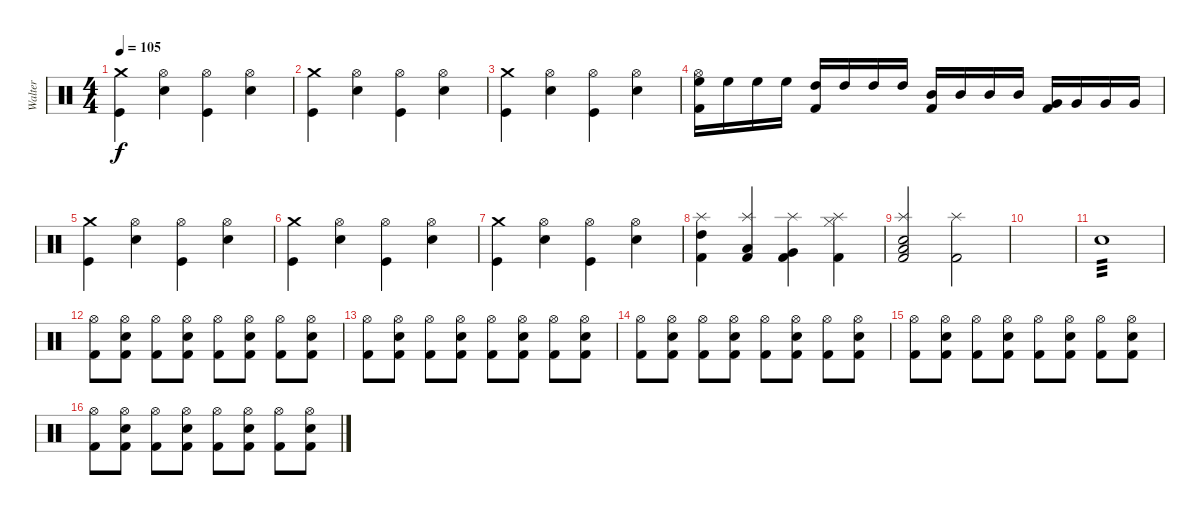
\track ("Walter" "Walter") {instrument percussion}
\staff {score}
\articulation defaults
\ts (4 4)
\tempo 105
\clef neutral
\ks c
("Kick (hit)" "Crash medium (hit)").4{dy f} ("Snare (hit) 2" "Hi-Hat (open)").4 ("Kick (hit)" "Hi-Hat (open)").4 ("Snare (hit) 2" "Hi-Hat (open)").4 |
("Kick (hit)" "Crash medium (hit)").4 ("Snare (hit) 2" "Hi-Hat (open)").4 ("Kick (hit)" "Hi-Hat (open)").4 ("Snare (hit) 2" "Hi-Hat (open)").4 |
("Kick (hit)" "Crash medium (hit)").4 ("Snare (hit) 2" "Hi-Hat (open)").4 ("Kick (hit)" "Hi-Hat (open)").4 ("Snare (hit) 2" "Hi-Hat (open)").4 |
("Hi-Hat (open)" "High Floor Tom (hit)" "Kick (hit) 2").16 "High Floor Tom (hit)".16 "High Floor Tom (hit)".16 "High Floor Tom (hit)".16 ("High Tom (hit)" "Kick (hit) 2").16 "High Tom (hit)".16 "High Tom (hit)".16 "High Tom (hit)".16 ("Mid Tom (hit)" "Kick (hit) 2").16 "Mid Tom (hit)".16 "Mid Tom (hit)".16 "Mid Tom (hit)".16 ("Very Low Tom (hit)" "Kick (hit) 2").16 "Very Low Tom (hit)".16 "Very Low Tom (hit)".16 "Very Low Tom (hit)".16 |
("Kick (hit)" "Crash medium (hit)").4 ("Snare (hit) 2" "Hi-Hat (open)").4 ("Kick (hit)" "Hi-Hat (open)").4 ("Snare (hit) 2" "Hi-Hat (open)").4 |
("Kick (hit)" "Crash medium (hit)").4 ("Snare (hit) 2" "Hi-Hat (open)").4 ("Kick (hit)" "Hi-Hat (open)").4 ("Snare (hit) 2" "Hi-Hat (open)").4 |
("Kick (hit)" "Crash medium (hit)").4 ("Snare (hit) 2" "Hi-Hat (open)").4 ("Kick (hit)" "Hi-Hat (open)").4 ("Snare (hit) 2" "Hi-Hat (open)").4 |
("Splash (hit)" "High Tom (hit)" "Kick (hit) 2").4 ("Splash (hit)" "Low Tom (hit)" "Kick (hit) 2").4 ("Splash (hit)" "Very Low Tom (hit)" "Kick (hit) 2").4 ("Splash (hit)" "Hi-Hat (closed)" "Kick (hit) 2").4 |
("Splash (hit)" "Low Floor Tom (hit)" "Electric Snare (hit)" "Kick (hit) 2").2 ("Splash (hit)" "Kick (hit) 2").2 |
|
"Electric Snare (hit)".1{tp 3} |
("Hi-Hat (open)" "Kick (hit) 2").8 ("Hi-Hat (open)" "Electric Snare (hit)" "Kick (hit) 2").8 ("Hi-Hat (open)" "Kick (hit) 2").8 ("Hi-Hat (open)" "Electric Snare (hit)" "Kick (hit) 2").8 ("Hi-Hat (open)" "Kick (hit) 2").8 ("Hi-Hat (open)" "Electric Snare (hit)" "Kick (hit) 2").8 ("Hi-Hat (open)" "Kick (hit) 2").8 ("Hi-Hat (open)" "Electric Snare (hit)" "Kick (hit) 2").8 |
("Hi-Hat (open)" "Kick (hit) 2").8 ("Hi-Hat (open)" "Electric Snare (hit)" "Kick (hit) 2").8 ("Hi-Hat (open)" "Kick (hit) 2").8 ("Hi-Hat (open)" "Electric Snare (hit)" "Kick (hit) 2").8 ("Hi-Hat (open)" "Kick (hit) 2").8 ("Hi-Hat (open)" "Electric Snare (hit)" "Kick (hit) 2").8 ("Hi-Hat (open)" "Kick (hit) 2").8 ("Hi-Hat (open)" "Electric Snare (hit)" "Kick (hit) 2").8 |
("Hi-Hat (open)" "Kick (hit) 2").8 ("Hi-Hat (open)" "Electric Snare (hit)" "Kick (hit) 2").8 ("Hi-Hat (open)" "Kick (hit) 2").8 ("Hi-Hat (open)" "Electric Snare (hit)" "Kick (hit) 2").8 ("Hi-Hat (open)" "Kick (hit) 2").8 ("Hi-Hat (open)" "Electric Snare (hit)" "Kick (hit) 2").8 ("Hi-Hat (open)" "Kick (hit) 2").8 ("Hi-Hat (open)" "Electric Snare (hit)" "Kick (hit) 2").8 |
("Hi-Hat (open)" "Kick (hit) 2").8 ("Hi-Hat (open)" "Electric Snare (hit)" "Kick (hit) 2").8 ("Hi-Hat (open)" "Kick (hit) 2").8 ("Hi-Hat (open)" "Electric Snare (hit)" "Kick (hit) 2").8 ("Hi-Hat (open)" "Kick (hit) 2").8 ("Hi-Hat (open)" "Electric Snare (hit)" "Kick (hit) 2").8 ("Hi-Hat (open)" "Kick (hit) 2").8 ("Hi-Hat (open)" "Electric Snare (hit)" "Kick (hit) 2").8 |
("Hi-Hat (open)" "Kick (hit) 2").8 ("Hi-Hat (open)" "Electric Snare (hit)" "Kick (hit) 2").8 ("Hi-Hat (open)" "Kick (hit) 2").8 ("Hi-Hat (open)" "Electric Snare (hit)" "Kick (hit) 2").8 ("Hi-Hat (open)" "Kick (hit) 2").8 ("Hi-Hat (open)" "Electric Snare (hit)" "Kick (hit) 2").8 ("Hi-Hat (open)" "Kick (hit) 2").8 ("Hi-Hat (open)" "Electric Snare (hit)" "Kick (hit) 2").8
